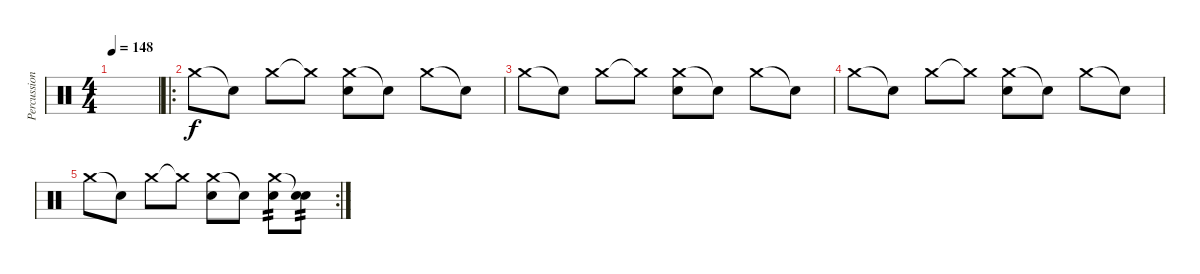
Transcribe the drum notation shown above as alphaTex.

\track ("Percussion" "Percussion") {instrument percussion}
\staff {score}
\articulation defaults
\ts (4 4)
\tempo 148
\clef neutral
\ks c
|
\ro "Crash medium (hit)".8 "Snare (hit)"{t}.8 "Crash medium (hit)".8 "Crash medium (hit)"{t}.8
("Crash medium (hit)" "Snare (hit) 2").8 "Snare (hit)"{t}.8 "Crash medium (hit)".8 "Snare (hit)"{t}.8 |
"Crash medium (hit)".8 "Snare (hit)"{t}.8 "Crash medium (hit)".8 "Crash medium (hit)"{t}.8 ("Crash medium (hit)" "Snare (hit) 2").8 "Snare (hit)"{t}.8 "Crash medium (hit)".8 "Snare (hit)"{t}.8 |
"Crash medium (hit)".8 "Snare (hit)"{t}.8 "Crash medium (hit)".8 "Crash medium (hit)"{t}.8 ("Crash medium (hit)" "Snare (hit) 2").8 "Snare (hit)"{t}.8 "Crash medium (hit)".8 "Snare (hit)"{t}.8 |
\rc 2 "Crash medium (hit)".8 "Snare (hit)"{t}.8 "Crash medium (hit)".8 "Crash medium (hit)"{t}.8
("Crash medium (hit)" "Snare (hit) 2").8 "Snare (hit)"{t}.8 ("Crash medium (hit)" "Snare (hit) 2").8{tp 2} ("Snare (hit)"{t} "Snare (hit) 2").8{tp 2}
